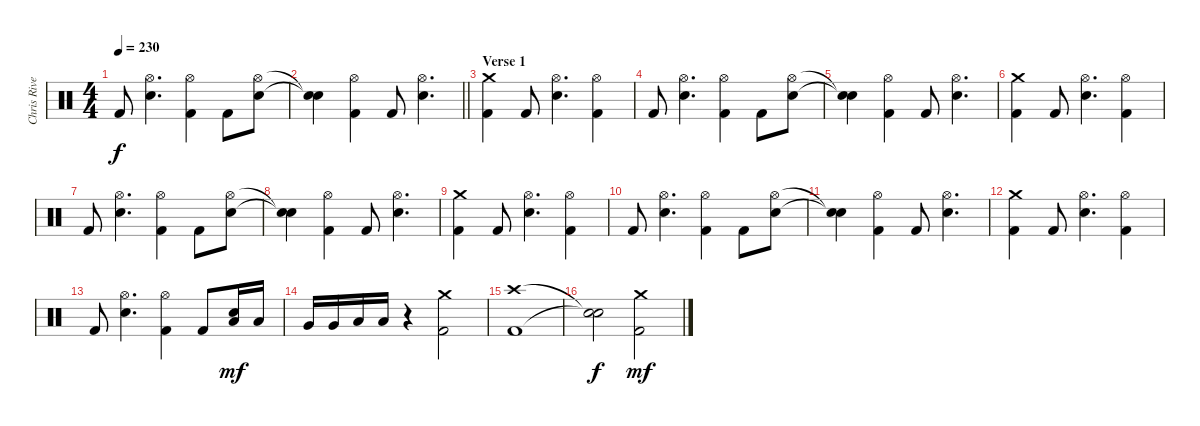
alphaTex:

\track ("Chris Rivers" "Chris Rive") {instrument percussion}
\staff {score}
\articulation defaults
\ts (4 4)
\tempo 230
\clef neutral
\ks c "Kick (hit) 2".8{dy f}
("Hi-Hat (open)" "Electric Snare (hit)").4{d} ("Hi-Hat (open)" "Kick (hit) 2").4 "Kick (hit) 2".8 ("Hi-Hat (open)" "Electric Snare (hit)").8 |
\barLineRight lightlight
("Snare (hit)"{t} "Snare (hit)"{t}).4 ("Hi-Hat (open)" "Kick (hit) 2").4 "Kick (hit) 2".8 ("Hi-Hat (open)" "Electric Snare (hit)").4{d} |
\section ("" "Verse 1")
("Crash medium (hit)" "Kick (hit) 2").4 "Kick (hit) 2".8 ("Hi-Hat (open)" "Electric Snare (hit)").4{d} ("Hi-Hat (open)" "Kick (hit) 2").4 |
"Kick (hit) 2".8 ("Hi-Hat (open)" "Electric Snare (hit)").4{d} ("Hi-Hat (open)" "Kick (hit) 2").4 "Kick (hit) 2".8 ("Hi-Hat (open)" "Electric Snare (hit)").8 |
("Snare (hit)"{t} "Snare (hit)"{t}).4 ("Hi-Hat (open)" "Kick (hit) 2").4 "Kick (hit) 2".8 ("Hi-Hat (open)" "Electric Snare (hit)").4{d} |
("Crash medium (hit)" "Kick (hit) 2").4 "Kick (hit) 2".8 ("Hi-Hat (open)" "Electric Snare (hit)").4{d} ("Hi-Hat (open)" "Kick (hit) 2").4 |
"Kick (hit) 2".8 ("Hi-Hat (open)" "Electric Snare (hit)").4{d} ("Hi-Hat (open)" "Kick (hit) 2").4 "Kick (hit) 2".8 ("Hi-Hat (open)" "Electric Snare (hit)").8 |
("Snare (hit)"{t} "Snare (hit)"{t}).4 ("Hi-Hat (open)" "Kick (hit) 2").4 "Kick (hit) 2".8 ("Hi-Hat (open)" "Electric Snare (hit)").4{d} |
("Crash medium (hit)" "Kick (hit) 2").4 "Kick (hit) 2".8 ("Hi-Hat (open)" "Electric Snare (hit)").4{d} ("Hi-Hat (open)" "Kick (hit) 2").4 |
"Kick (hit) 2".8 ("Hi-Hat (open)" "Electric Snare (hit)").4{d} ("Hi-Hat (open)" "Kick (hit) 2").4 "Kick (hit) 2".8 ("Hi-Hat (open)" "Electric Snare (hit)").8 |
("Snare (hit)"{t} "Snare (hit)"{t}).4 ("Hi-Hat (open)" "Kick (hit) 2").4 "Kick (hit) 2".8 ("Hi-Hat (open)" "Electric Snare (hit)").4{d} |
("Crash medium (hit)" "Kick (hit) 2").4 "Kick (hit) 2".8 ("Hi-Hat (open)" "Electric Snare (hit)").4{d} ("Hi-Hat (open)" "Kick (hit) 2").4 |
"Kick (hit) 2".8 ("Hi-Hat (open)" "Electric Snare (hit)").4{d} ("Hi-Hat (open)" "Kick (hit) 2").4 "Kick (hit) 2".8 ("Electric Snare (hit)" "Low Tom (hit)").16{dy mf} "Low Tom (hit)".16 |
"Very Low Tom (hit)".16 "Very Low Tom (hit)".16 "Low Tom (hit)".16 "Low Tom (hit)".16 r.4 ("Crash medium (hit)" "Kick (hit) 2").2 |
("Crash high (hit)" "Kick (hit) 2").1 |
("Snare (hit)"{t} "Snare (hit)"{t}).2{dy f} ("Crash medium (hit)" "Kick (hit) 2").2{dy mf}
